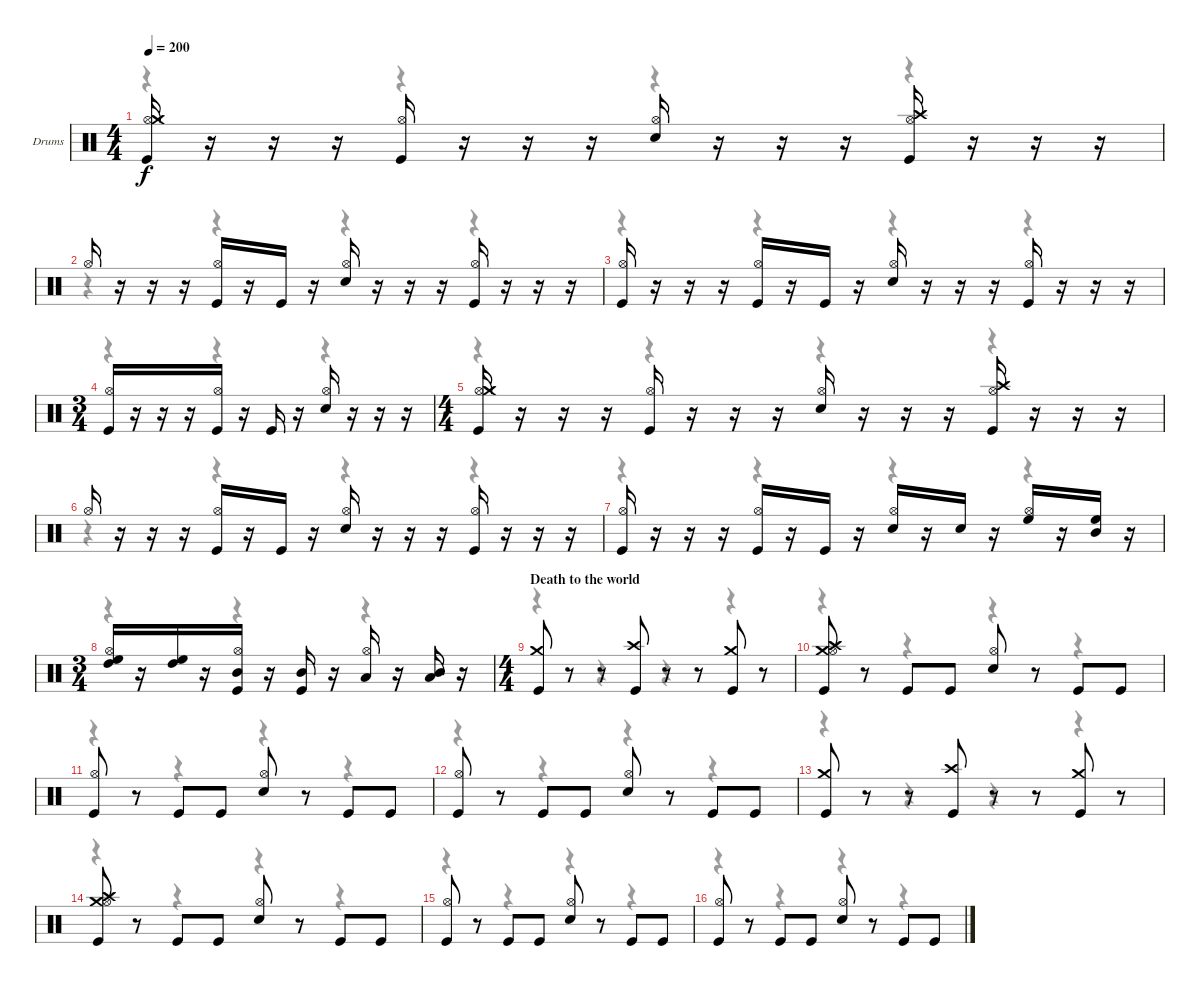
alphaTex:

\bracketExtendMode nobrackets
\firstSystemTrackNameOrientation horizontal
\otherSystemsTrackNameOrientation horizontal
\track ("Drumkit" "Drums") {instrument percussion}
\staff {score}
\articulation defaults
\voice
\ts (4 4)
\beaming (8 2 2 2 2)
\tempo 200
\clef neutral
\ks c
("Kick (hit)" "Hi-Hat (open)" "Crash medium (hit)").16{dy f} r.16 r.16 r.16 ("Kick (hit)" "Hi-Hat (open)").16 r.16 r.16 r.16 ("Snare (hit) 2" "Hi-Hat (open)").16 r.16 r.16 r.16 ("Kick (hit)" "Hi-Hat (open)" "Crash high (hit)").16 r.16 r.16 r.16 |
"Hi-Hat (open)".16 r.16 r.16 r.16 ("Kick (hit)" "Hi-Hat (open)").16 r.16 "Kick (hit)".16 r.16 ("Hi-Hat (open)" "Snare (hit) 2").16 r.16 r.16 r.16 ("Hi-Hat (open)" "Kick (hit)").16 r.16 r.16 r.16 |
("Kick (hit)" "Hi-Hat (open)").16 r.16 r.16 r.16 ("Kick (hit)" "Hi-Hat (open)").16 r.16 "Kick (hit)".16 r.16 ("Snare (hit) 2" "Hi-Hat (open)").16 r.16 r.16 r.16 ("Kick (hit)" "Hi-Hat (open)").16 r.16 r.16 r.16 |
\ts (3 4)
\beaming (8 3 1 1 1)
("Kick (hit)" "Hi-Hat (open)").16 r.16 r.16 r.16 ("Kick (hit)" "Hi-Hat (open)").16 r.16 "Kick (hit)".16 r.16 ("Snare (hit) 2" "Hi-Hat (open)").16 r.16 r.16 r.16 |
\ts (4 4)
\beaming (8 2 2 2 2)
("Kick (hit)" "Hi-Hat (open)" "Crash medium (hit)").16 r.16 r.16 r.16 ("Kick (hit)" "Hi-Hat (open)").16 r.16 r.16 r.16 ("Snare (hit) 2" "Hi-Hat (open)").16 r.16 r.16 r.16 ("Kick (hit)" "Hi-Hat (open)" "Crash high (hit)").16 r.16 r.16 r.16 |
"Hi-Hat (open)".16 r.16 r.16 r.16 ("Kick (hit)" "Hi-Hat (open)").16 r.16 "Kick (hit)".16 r.16 ("Hi-Hat (open)" "Snare (hit) 2").16 r.16 r.16 r.16 ("Hi-Hat (open)" "Kick (hit)").16 r.16 r.16 r.16 |
("Kick (hit)" "Hi-Hat (open)").16 r.16 r.16 r.16 ("Kick (hit)" "Hi-Hat (open)").16 r.16 "Kick (hit)".16 r.16 ("Snare (hit) 2" "Hi-Hat (open)").16 r.16 "Snare (hit) 2".16 r.16 ("High Floor Tom (hit)" "Hi-Hat (open)").16 r.16 ("High Floor Tom (hit)" "Mid Tom (hit)").16 r.16 |
\ts (3 4)
\beaming (8 3 1 1 1)
("High Floor Tom (hit)" "Hi-Hat (open)" "High Tom (hit)").16 r.16 ("High Tom (hit)" "High Floor Tom (hit)").16 r.16 ("Kick (hit)" "Hi-Hat (open)" "Mid Tom (hit)").16 r.16 ("Kick (hit)" "Mid Tom (hit)").16 r.16 ("Hi-Hat (open)" "Low Tom (hit)").16 r.16 ("Mid Tom (hit)" "Low Tom (hit)").16 r.16 |
\ts (4 4)
\beaming (8 2 2 2 2)
\section ("" "Death to the world")
("Kick (hit)" "Crash medium (hit)").8 r.8 r.8 ("Crash high (hit)" "Kick (hit)").8 r.8 r.8 ("Crash medium (hit)" "Kick (hit)").8 r.8 |
("Crash high (hit)" "Crash medium (hit)" "Kick (hit)" "Hi-Hat (open)").8 r.8 "Kick (hit)".8 "Kick (hit)".8 ("Snare (hit) 2" "Hi-Hat (open)").8 r.8 "Kick (hit)".8 "Kick (hit)".8 |
("Hi-Hat (open)" "Kick (hit)").8 r.8 "Kick (hit)".8 "Kick (hit)".8 ("Hi-Hat (open)" "Snare (hit) 2").8 r.8 "Kick (hit)".8 "Kick (hit)".8 |
("Kick (hit)" "Hi-Hat (open)").8 r.8 "Kick (hit)".8 "Kick (hit)".8 ("Snare (hit) 2" "Hi-Hat (open)").8 r.8 "Kick (hit)".8 "Kick (hit)".8 |
("Kick (hit)" "Crash medium (hit)").8 r.8 r.8 ("Crash high (hit)" "Kick (hit)").8 r.8 r.8 ("Crash medium (hit)" "Kick (hit)").8 r.8 |
("Crash high (hit)" "Crash medium (hit)" "Kick (hit)" "Hi-Hat (open)").8 r.8 "Kick (hit)".8 "Kick (hit)".8 ("Snare (hit) 2" "Hi-Hat (open)").8 r.8 "Kick (hit)".8 "Kick (hit)".8 |
("Hi-Hat (open)" "Kick (hit)").8 r.8 "Kick (hit)".8 "Kick (hit)".8 ("Hi-Hat (open)" "Snare (hit) 2").8 r.8 "Kick (hit)".8 "Kick (hit)".8 |
("Kick (hit)" "Hi-Hat (open)").8 r.8 "Kick (hit)".8 "Kick (hit)".8 ("Snare (hit) 2" "Hi-Hat (open)").8 r.8 "Kick (hit)".8 "Kick (hit)".8
\voice
\clef neutral
\ottava regular
\simile none
\ks c
r.4{dy mf} r.4 r.4 r.4 |
r.4 r.4 r.4 r.4 |
r.4 r.4 r.4 r.4 |
r.4 r.4 r.4 |
r.4 r.4 r.4 r.4 |
r.4 r.4 r.4 r.4 |
r.4 r.4 r.4 r.4 |
r.4 r.4 r.4 |
r.4 r.4 r.4 r.4 |
r.4 r.4 r.4 r.4 |
r.4 r.4 r.4 r.4 |
r.4 r.4 r.4 r.4 |
r.4 r.4 r.4 r.4 |
r.4 r.4 r.4 r.4 |
r.4 r.4 r.4 r.4 |
r.4 r.4 r.4 r.4
